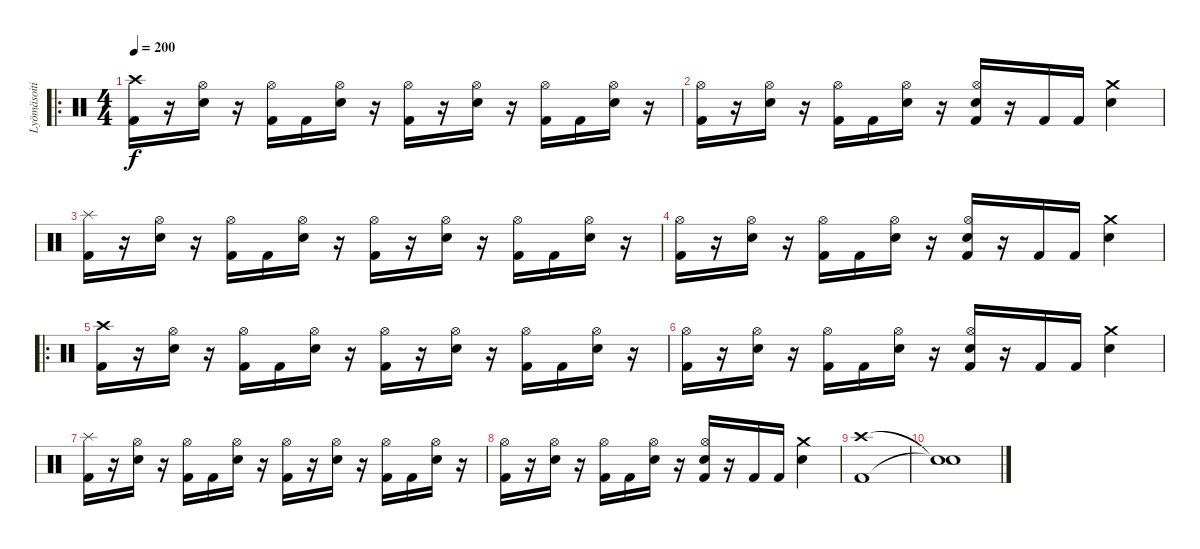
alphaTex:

\track ("Lyömäsoitin" "Lyömäsoiti") {instrument percussion}
\staff {score}
\articulation defaults
\ro
\ts (4 4)
\tempo 200
\clef neutral
\ks c
("Crash high (hit)" "Kick (hit) 2").16{dy f} r.16 ("Hi-Hat (open)" "Electric Snare (hit)").16 r.16 ("Hi-Hat (open)" "Kick (hit) 2").16 "Kick (hit) 2".16 ("Hi-Hat (open)" "Electric Snare (hit)").16 r.16 ("Hi-Hat (open)" "Kick (hit) 2").16 r.16 ("Hi-Hat (open)" "Electric Snare (hit)").16 r.16 ("Hi-Hat (open)" "Kick (hit) 2").16 "Kick (hit) 2".16 ("Hi-Hat (open)" "Electric Snare (hit)").16 r.16 |
("Hi-Hat (open)" "Kick (hit) 2").16 r.16 ("Hi-Hat (open)" "Electric Snare (hit)").16 r.16 ("Hi-Hat (open)" "Kick (hit) 2").16 "Kick (hit) 2".16 ("Hi-Hat (open)" "Electric Snare (hit)").16 r.16 ("Hi-Hat (open)" "Electric Snare (hit)" "Kick (hit) 2").16 r.16 "Kick (hit) 2".16 "Kick (hit) 2".16 ("Crash medium (hit)" "Electric Snare (hit)").4 |
("Splash (hit)" "Kick (hit) 2").16 r.16 ("Hi-Hat (open)" "Electric Snare (hit)").16 r.16 ("Hi-Hat (open)" "Kick (hit) 2").16 "Kick (hit) 2".16 ("Hi-Hat (open)" "Electric Snare (hit)").16 r.16 ("Hi-Hat (open)" "Kick (hit) 2").16 r.16 ("Hi-Hat (open)" "Electric Snare (hit)").16 r.16 ("Hi-Hat (open)" "Kick (hit) 2").16 "Kick (hit) 2".16 ("Hi-Hat (open)" "Electric Snare (hit)").16 r.16 |
("Hi-Hat (open)" "Kick (hit) 2").16 r.16 ("Hi-Hat (open)" "Electric Snare (hit)").16 r.16 ("Hi-Hat (open)" "Kick (hit) 2").16 "Kick (hit) 2".16 ("Hi-Hat (open)" "Electric Snare (hit)").16 r.16 ("Hi-Hat (open)" "Electric Snare (hit)" "Kick (hit) 2").16 r.16 "Kick (hit) 2".16 "Kick (hit) 2".16 ("Crash medium (hit)" "Electric Snare (hit)").4 |
\ro
("Crash high (hit)" "Kick (hit) 2").16 r.16 ("Hi-Hat (open)" "Electric Snare (hit)").16 r.16 ("Hi-Hat (open)" "Kick (hit) 2").16 "Kick (hit) 2".16 ("Hi-Hat (open)" "Electric Snare (hit)").16 r.16 ("Hi-Hat (open)" "Kick (hit) 2").16 r.16 ("Hi-Hat (open)" "Electric Snare (hit)").16 r.16 ("Hi-Hat (open)" "Kick (hit) 2").16 "Kick (hit) 2".16 ("Hi-Hat (open)" "Electric Snare (hit)").16 r.16 |
("Hi-Hat (open)" "Kick (hit) 2").16 r.16 ("Hi-Hat (open)" "Electric Snare (hit)").16 r.16 ("Hi-Hat (open)" "Kick (hit) 2").16 "Kick (hit) 2".16 ("Hi-Hat (open)" "Electric Snare (hit)").16 r.16 ("Hi-Hat (open)" "Electric Snare (hit)" "Kick (hit) 2").16 r.16 "Kick (hit) 2".16 "Kick (hit) 2".16 ("Crash medium (hit)" "Electric Snare (hit)").4 |
("Splash (hit)" "Kick (hit) 2").16 r.16 ("Hi-Hat (open)" "Electric Snare (hit)").16 r.16 ("Hi-Hat (open)" "Kick (hit) 2").16 "Kick (hit) 2".16 ("Hi-Hat (open)" "Electric Snare (hit)").16 r.16 ("Hi-Hat (open)" "Kick (hit) 2").16 r.16 ("Hi-Hat (open)" "Electric Snare (hit)").16 r.16 ("Hi-Hat (open)" "Kick (hit) 2").16 "Kick (hit) 2".16 ("Hi-Hat (open)" "Electric Snare (hit)").16 r.16 |
("Hi-Hat (open)" "Kick (hit) 2").16 r.16 ("Hi-Hat (open)" "Electric Snare (hit)").16 r.16 ("Hi-Hat (open)" "Kick (hit) 2").16 "Kick (hit) 2".16 ("Hi-Hat (open)" "Electric Snare (hit)").16 r.16 ("Hi-Hat (open)" "Electric Snare (hit)" "Kick (hit) 2").16 r.16 "Kick (hit) 2".16 "Kick (hit) 2".16 ("Crash medium (hit)" "Electric Snare (hit)").4 |
("Crash high (hit)" "Kick (hit) 2").1 |
("Snare (hit)"{t} "Snare (hit)"{t}).1
